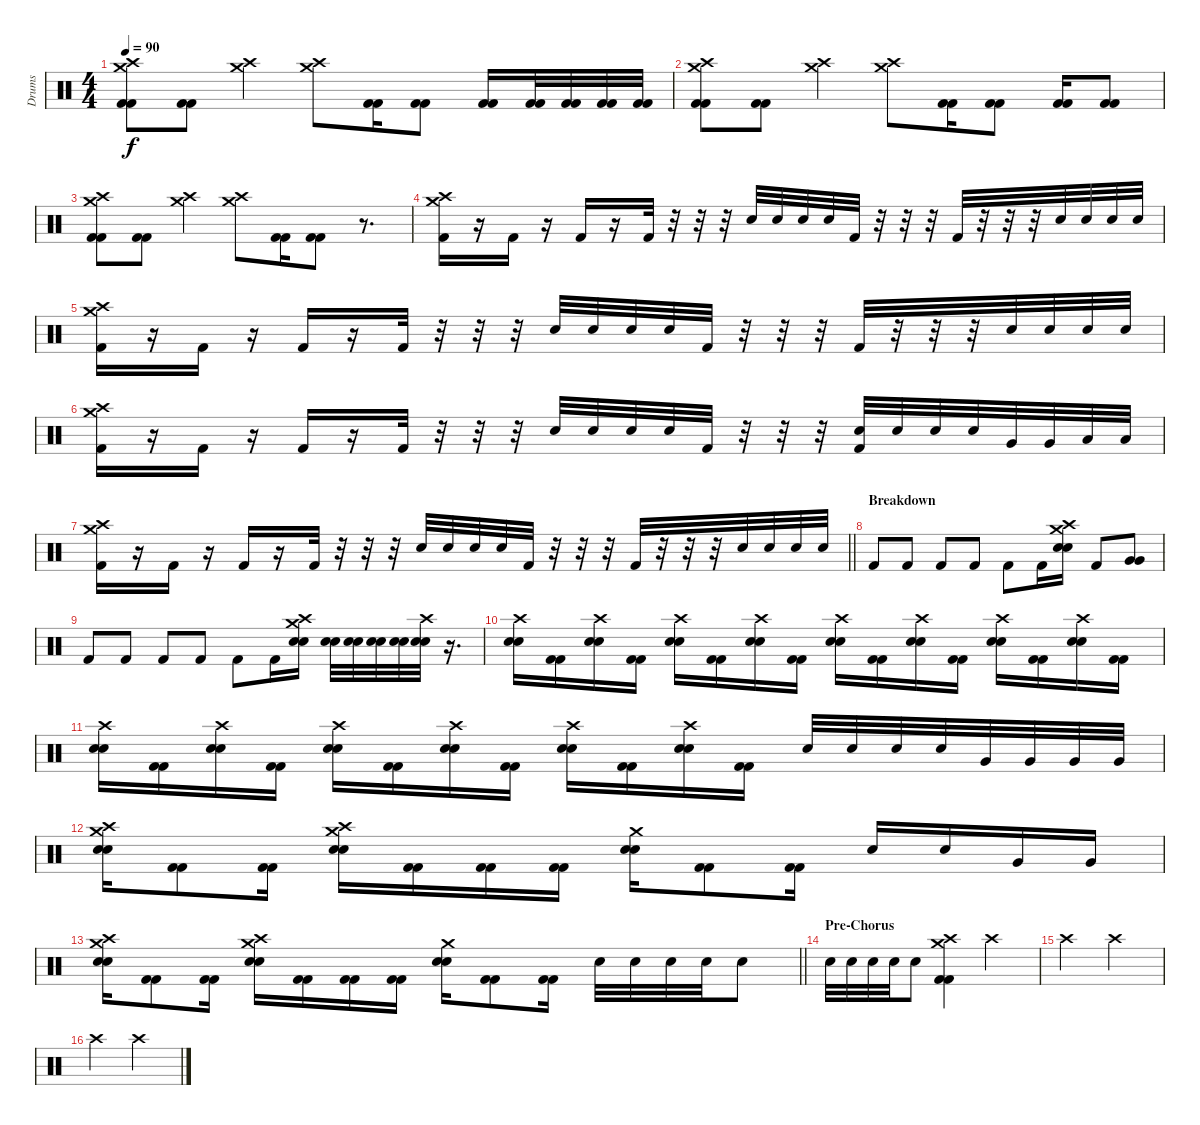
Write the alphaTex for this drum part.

\track ("Drums" "Drums") {instrument percussion}
\staff {score}
\articulation defaults
\ts (4 4)
\tempo 90
\clef neutral
\ks c
("Crash medium (hit)" "Crash high (hit)" "Kick (hit) 2" "Kick (hit) 2").8{dy f} ("Kick (hit) 2" "Kick (hit) 2").8 ("Crash medium (hit)" "Crash high (hit)").4 ("Crash medium (hit)" "Crash high (hit)").8 ("Kick (hit) 2" "Kick (hit) 2").16 ("Kick (hit) 2" "Kick (hit) 2").8 ("Kick (hit) 2" "Kick (hit) 2").16 ("Kick (hit) 2" "Kick (hit) 2").32 ("Kick (hit) 2" "Kick (hit) 2").32 ("Kick (hit) 2" "Kick (hit) 2").32 ("Kick (hit) 2" "Kick (hit) 2").32 |
("Crash medium (hit)" "Crash high (hit)" "Kick (hit) 2" "Kick (hit) 2").8 ("Kick (hit) 2" "Kick (hit) 2").8 ("Crash medium (hit)" "Crash high (hit)").4 ("Crash medium (hit)" "Crash high (hit)").8 ("Kick (hit) 2" "Kick (hit) 2").16 ("Kick (hit) 2" "Kick (hit) 2").8 ("Kick (hit) 2" "Kick (hit) 2").16 ("Kick (hit) 2" "Kick (hit) 2").8 |
("Crash medium (hit)" "Crash high (hit)" "Kick (hit) 2" "Kick (hit) 2").8 ("Kick (hit) 2" "Kick (hit) 2").8 ("Crash medium (hit)" "Crash high (hit)").4 ("Crash medium (hit)" "Crash high (hit)").8 ("Kick (hit) 2" "Kick (hit) 2").16 ("Kick (hit) 2" "Kick (hit) 2").8 r.8{d} |
("Crash medium (hit)" "Crash high (hit)" "Kick (hit) 2").16 r.16 "Kick (hit) 2".16 r.16 "Kick (hit) 2".16 r.16 "Kick (hit) 2".32 r.32 r.32 r.32 "Electric Snare (hit)".32 "Electric Snare (hit)".32 "Electric Snare (hit)".32 "Electric Snare (hit)".32 "Kick (hit) 2".32 r.32 r.32 r.32 "Kick (hit) 2".32 r.32 r.32 r.32 "Electric Snare (hit)".32 "Electric Snare (hit)".32 "Electric Snare (hit)".32 "Electric Snare (hit)".32 |
("Crash medium (hit)" "Crash high (hit)" "Kick (hit) 2").16 r.16 "Kick (hit) 2".16 r.16 "Kick (hit) 2".16 r.16 "Kick (hit) 2".32 r.32 r.32 r.32 "Electric Snare (hit)".32 "Electric Snare (hit)".32 "Electric Snare (hit)".32 "Electric Snare (hit)".32 "Kick (hit) 2".32 r.32 r.32 r.32 "Kick (hit) 2".32 r.32 r.32 r.32 "Electric Snare (hit)".32 "Electric Snare (hit)".32 "Electric Snare (hit)".32 "Electric Snare (hit)".32 |
("Crash medium (hit)" "Crash high (hit)" "Kick (hit) 2").16 r.16 "Kick (hit) 2".16 r.16 "Kick (hit) 2".16 r.16 "Kick (hit) 2".32 r.32 r.32 r.32 "Electric Snare (hit)".32 "Electric Snare (hit)".32 "Electric Snare (hit)".32 "Electric Snare (hit)".32 "Kick (hit) 2".32 r.32 r.32 r.32 ("Electric Snare (hit)" "Kick (hit) 2").32 "Electric Snare (hit)".32 "Electric Snare (hit)".32 "Electric Snare (hit)".32 "Very Low Tom (hit)".32 "Very Low Tom (hit)".32 "Low Floor Tom (hit)".32 "Low Floor Tom (hit)".32 |
\barLineRight lightlight
("Crash medium (hit)" "Crash high (hit)" "Kick (hit) 2").16 r.16 "Kick (hit) 2".16 r.16 "Kick (hit) 2".16 r.16 "Kick (hit) 2".32 r.32 r.32 r.32 "Electric Snare (hit)".32 "Electric Snare (hit)".32 "Electric Snare (hit)".32 "Electric Snare (hit)".32 "Kick (hit) 2".32 r.32 r.32 r.32 "Kick (hit) 2".32 r.32 r.32 r.32 "Electric Snare (hit)".32 "Electric Snare (hit)".32 "Electric Snare (hit)".32 "Electric Snare (hit)".32 |
\section ("" "Breakdown")
"Kick (hit) 2".8 "Kick (hit) 2".8 "Kick (hit) 2".8 "Kick (hit) 2".8 "Kick (hit) 2".8 "Kick (hit) 2".16 ("Crash high (hit)" "Crash medium (hit)" "Electric Snare (hit)" "Electric Snare (hit)").16 "Kick (hit) 2".8 ("Very Low Tom (hit)" "Very Low Tom (hit)").8 |
"Kick (hit) 2".8 "Kick (hit) 2".8 "Kick (hit) 2".8 "Kick (hit) 2".8 "Kick (hit) 2".8 "Kick (hit) 2".16 ("Crash high (hit)" "Crash medium (hit)" "Electric Snare (hit)" "Electric Snare (hit)").16 ("Electric Snare (hit)" "Electric Snare (hit)").32 ("Electric Snare (hit)" "Electric Snare (hit)").32 ("Electric Snare (hit)" "Electric Snare (hit)").32 ("Electric Snare (hit)" "Electric Snare (hit)").32 ("Crash high (hit)" "Electric Snare (hit)" "Electric Snare (hit)").32 r.16{d} |
("Crash high (hit)" "Electric Snare (hit)" "Electric Snare (hit)").16 ("Kick (hit) 2" "Kick (hit) 2").16 ("Crash high (hit)" "Electric Snare (hit)" "Electric Snare (hit)").16 ("Kick (hit) 2" "Kick (hit) 2").16 ("Crash high (hit)" "Electric Snare (hit)" "Electric Snare (hit)").16 ("Kick (hit) 2" "Kick (hit) 2").16 ("Crash high (hit)" "Electric Snare (hit)" "Electric Snare (hit)").16 ("Kick (hit) 2" "Kick (hit) 2").16 ("Crash high (hit)" "Electric Snare (hit)" "Electric Snare (hit)").16 ("Kick (hit) 2" "Kick (hit) 2").16 ("Crash high (hit)" "Electric Snare (hit)" "Electric Snare (hit)").16 ("Kick (hit) 2" "Kick (hit) 2").16 ("Crash high (hit)" "Electric Snare (hit)" "Electric Snare (hit)").16 ("Kick (hit) 2" "Kick (hit) 2").16 ("Crash high (hit)" "Electric Snare (hit)" "Electric Snare (hit)").16 ("Kick (hit) 2" "Kick (hit) 2").16 |
("Crash high (hit)" "Electric Snare (hit)" "Electric Snare (hit)").16 ("Kick (hit) 2" "Kick (hit) 2").16 ("Crash high (hit)" "Electric Snare (hit)" "Electric Snare (hit)").16 ("Kick (hit) 2" "Kick (hit) 2").16 ("Crash high (hit)" "Electric Snare (hit)" "Electric Snare (hit)").16 ("Kick (hit) 2" "Kick (hit) 2").16 ("Crash high (hit)" "Electric Snare (hit)" "Electric Snare (hit)").16 ("Kick (hit) 2" "Kick (hit) 2").16 ("Crash high (hit)" "Electric Snare (hit)" "Electric Snare (hit)").16 ("Kick (hit) 2" "Kick (hit) 2").16 ("Crash high (hit)" "Electric Snare (hit)" "Electric Snare (hit)").16 ("Kick (hit) 2" "Kick (hit) 2").16 "Electric Snare (hit)".32 "Electric Snare (hit)".32 "Electric Snare (hit)".32 "Electric Snare (hit)".32 "Very Low Tom (hit)".32 "Very Low Tom (hit)".32 "Very Low Tom (hit)".32 "Very Low Tom (hit)".32 |
("Crash high (hit)" "Crash medium (hit)" "Electric Snare (hit)" "Electric Snare (hit)").16 ("Kick (hit) 2" "Kick (hit) 2").8 ("Kick (hit) 2" "Kick (hit) 2").16 ("Crash high (hit)" "Crash medium (hit)" "Electric Snare (hit)" "Electric Snare (hit)").16 ("Kick (hit) 2" "Kick (hit) 2").16 ("Kick (hit) 2" "Kick (hit) 2").16 ("Kick (hit) 2" "Kick (hit) 2").16 ("Crash medium (hit)" "Electric Snare (hit)" "Electric Snare (hit)").16 ("Kick (hit) 2" "Kick (hit) 2").8 ("Kick (hit) 2" "Kick (hit) 2").16 "Electric Snare (hit)".16 "Electric Snare (hit)".16 "Very Low Tom (hit)".16 "Very Low Tom (hit)".16 |
\barLineRight lightlight
("Crash high (hit)" "Crash medium (hit)" "Electric Snare (hit)" "Electric Snare (hit)").16 ("Kick (hit) 2" "Kick (hit) 2").8 ("Kick (hit) 2" "Kick (hit) 2").16 ("Crash high (hit)" "Crash medium (hit)" "Electric Snare (hit)" "Electric Snare (hit)").16 ("Kick (hit) 2" "Kick (hit) 2").16 ("Kick (hit) 2" "Kick (hit) 2").16 ("Kick (hit) 2" "Kick (hit) 2").16 ("Crash medium (hit)" "Electric Snare (hit)" "Electric Snare (hit)").16 ("Kick (hit) 2" "Kick (hit) 2").8 ("Kick (hit) 2" "Kick (hit) 2").16 "Electric Snare (hit)".32 "Electric Snare (hit)".32 "Electric Snare (hit)".32 "Electric Snare (hit)".32 "Electric Snare (hit)".8 |
\section ("" "Pre-Chorus ")
"Electric Snare (hit)".32 "Electric Snare (hit)".32 "Electric Snare (hit)".32 "Electric Snare (hit)".32 "Electric Snare (hit)".8 ("Crash high (hit)" "Crash medium (hit)" "Kick (hit) 2" "Kick (hit) 2").4 "Crash high (hit)".2 |
"Crash high (hit)".2 "Crash high (hit)".2 |
"Crash high (hit)".2 "Crash high (hit)".2
